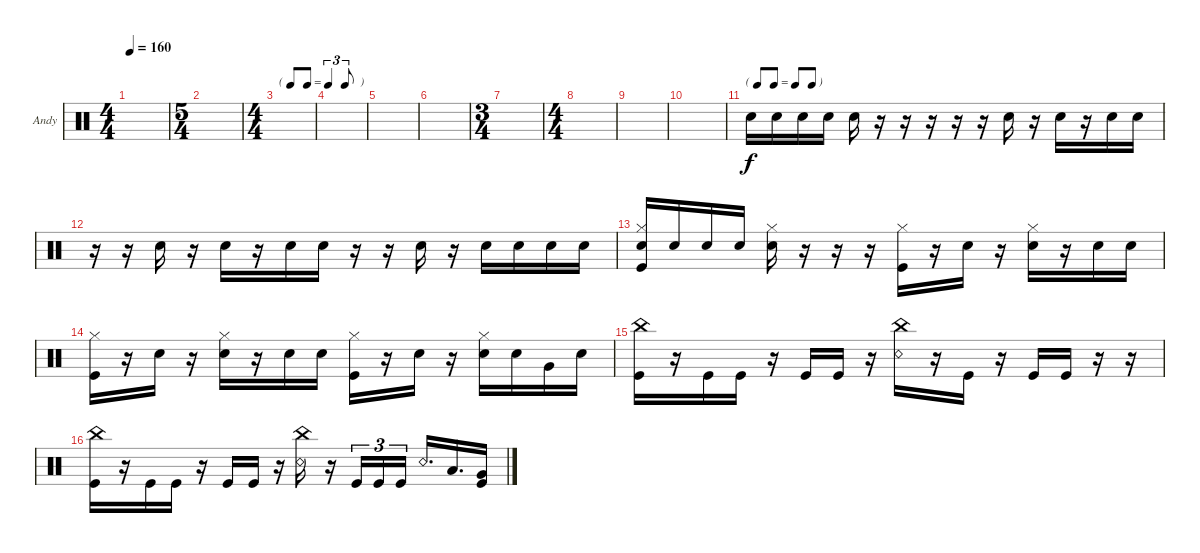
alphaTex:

\defaultSystemsLayout 4
\bracketExtendMode groupsimilarinstruments
\firstSystemTrackNameOrientation horizontal
\otherSystemsTrackNameOrientation horizontal
\track ("Drums" "Andy") {instrument percussion}
\staff {score}
\articulation defaults
\ts (4 4)
\tempo 160
\clef neutral
\ks c
|
\ts (5 4)
|
\ts (4 4)
\tf triplet8th
|
|
|
|
\ts (3 4)
|
\ts (4 4)
|
|
|
\tf none "Snare (hit) 2".16 "Snare (hit) 2".16 "Snare (hit) 2".16 "Snare (hit) 2".16 "Snare (hit) 2".16
r.16 r.16 r.16 r.16 r.16 "Snare (hit) 2".16 r.16 "Snare (hit) 2".16 r.16 "Snare (hit) 2".16 "Snare (hit) 2".16 |
r.16 r.16 "Snare (hit) 2".16 r.16 "Snare (hit) 2".16 r.16 "Snare (hit) 2".16 "Snare (hit) 2".16 r.16 r.16 "Snare (hit) 2".16 r.16 "Snare (hit) 2".16 "Snare (hit) 2".16 "Snare (hit) 2".16 "Snare (hit) 2".16 |
("Snare (hit) 2" "Hi-Hat (closed)" "Kick (hit)").16 "Snare (hit) 2".16 "Snare (hit) 2".16 "Snare (hit) 2".16 ("Snare (hit) 2" "Hi-Hat (closed)").16 r.16 r.16 r.16 ("Hi-Hat (closed)" "Kick (hit)").16 r.16 "Snare (hit) 2".16 r.16 ("Snare (hit) 2" "Hi-Hat (closed)").16 r.16 "Snare (hit) 2".16 "Snare (hit) 2".16 |
("Kick (hit)" "Hi-Hat (closed)").16 r.16 "Snare (hit) 2".16 r.16 ("Snare (hit) 2" "Hi-Hat (closed)").16 r.16 "Snare (hit) 2".16 "Snare (hit) 2".16 ("Hi-Hat (closed)" "Kick (hit)").16 r.16 "Snare (hit) 2".16 r.16 ("Snare (hit) 2" "Hi-Hat (closed)").16 "Snare (hit) 2".16 "Very Low Tom (hit)".16 "Snare (hit) 2".16 |
("Kick (hit)" "China (hit)").16 r.16 "Kick (hit)".16 "Kick (hit)".16 r.16 "Kick (hit)".16 "Kick (hit)".16 r.16 ("Snare (rim shot)" "China (hit)").16 r.16 "Kick (hit)".16 r.16 "Kick (hit)".16 "Kick (hit)".16 r.16 r.16 |
("Kick (hit)" "China (hit)").16 r.16 "Kick (hit)".16 "Kick (hit)".16 r.16 "Kick (hit)".16 "Kick (hit)".16 r.16 ("Snare (rim shot)" "China (hit)").16 r.16 "Kick (hit)".16{tu (3 2)} "Kick (hit)".16{tu (3 2)} "Kick (hit)".16{tu (3 2)} "Snare (rim shot)".16{d} "Low Tom (hit)".16{d} ("Kick (hit)" "Very Low Tom (hit)").16
